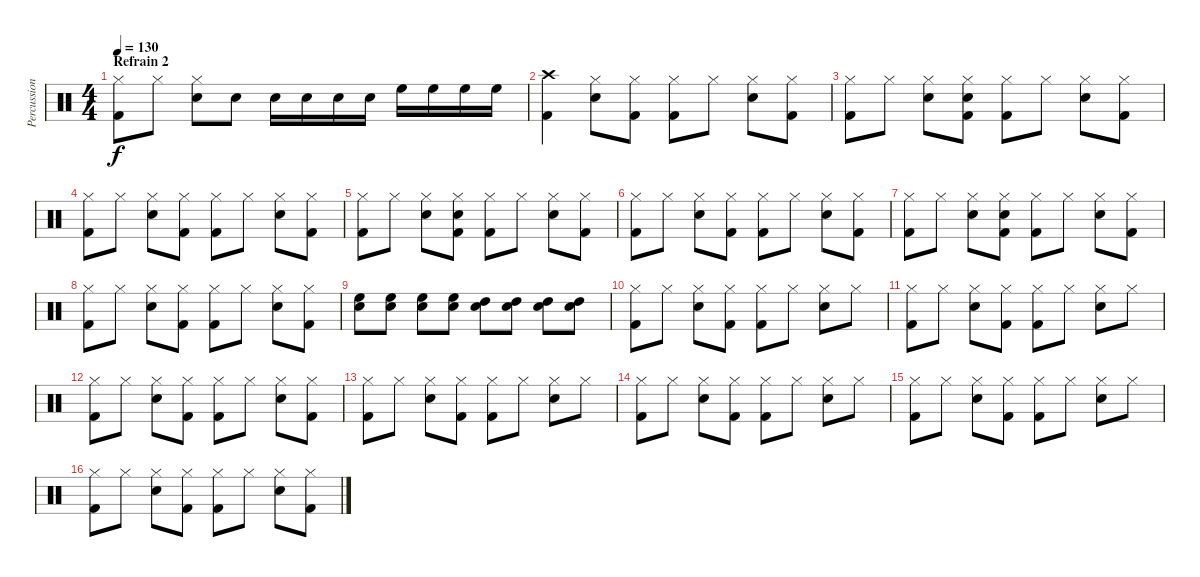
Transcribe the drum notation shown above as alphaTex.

\track ("Percussion" "Percussion") {instrument percussion}
\staff {score}
\articulation defaults
\ts (4 4)
\section ("" "Refrain 2")
\tempo 130
\clef neutral
\ks c
("Hi-Hat (closed)" "Kick (hit) 2").8{dy f} "Hi-Hat (closed)".8 ("Hi-Hat (closed)" "Snare (hit) 2").8 "Snare (hit) 2".8 "Snare (hit) 2".16 "Snare (hit) 2".16 "Snare (hit) 2".16 "Snare (hit) 2".16 "High Floor Tom (hit)".16 "High Floor Tom (hit)".16 "High Floor Tom (hit)".16 "High Floor Tom (hit)".16 |
("Crash high (hit)" "Kick (hit) 2").4 ("Hi-Hat (closed)" "Snare (hit) 2").8 ("Hi-Hat (closed)" "Kick (hit) 2").8 ("Hi-Hat (closed)" "Kick (hit) 2").8 "Hi-Hat (closed)".8 ("Hi-Hat (closed)" "Snare (hit) 2").8 ("Hi-Hat (closed)" "Kick (hit) 2").8 |
("Hi-Hat (closed)" "Kick (hit) 2").8 "Hi-Hat (closed)".8 ("Hi-Hat (closed)" "Snare (hit) 2").8 ("Hi-Hat (closed)" "Snare (hit) 2" "Kick (hit) 2").8 ("Hi-Hat (closed)" "Kick (hit) 2").8 "Hi-Hat (closed)".8 ("Hi-Hat (closed)" "Snare (hit) 2").8 ("Hi-Hat (closed)" "Kick (hit) 2").8 |
("Hi-Hat (closed)" "Kick (hit) 2").8 "Hi-Hat (closed)".8 ("Hi-Hat (closed)" "Snare (hit) 2").8 ("Hi-Hat (closed)" "Kick (hit) 2").8 ("Hi-Hat (closed)" "Kick (hit) 2").8 "Hi-Hat (closed)".8 ("Hi-Hat (closed)" "Snare (hit) 2").8 ("Hi-Hat (closed)" "Kick (hit) 2").8 |
("Hi-Hat (closed)" "Kick (hit) 2").8 "Hi-Hat (closed)".8 ("Hi-Hat (closed)" "Snare (hit) 2").8 ("Hi-Hat (closed)" "Snare (hit) 2" "Kick (hit) 2").8 ("Hi-Hat (closed)" "Kick (hit) 2").8 "Hi-Hat (closed)".8 ("Hi-Hat (closed)" "Snare (hit) 2").8 ("Hi-Hat (closed)" "Kick (hit) 2").8 |
("Hi-Hat (closed)" "Kick (hit) 2").8 "Hi-Hat (closed)".8 ("Hi-Hat (closed)" "Snare (hit) 2").8 ("Hi-Hat (closed)" "Kick (hit) 2").8 ("Hi-Hat (closed)" "Kick (hit) 2").8 "Hi-Hat (closed)".8 ("Hi-Hat (closed)" "Snare (hit) 2").8 ("Hi-Hat (closed)" "Kick (hit) 2").8 |
("Hi-Hat (closed)" "Kick (hit) 2").8 "Hi-Hat (closed)".8 ("Hi-Hat (closed)" "Snare (hit) 2").8 ("Hi-Hat (closed)" "Snare (hit) 2" "Kick (hit) 2").8 ("Hi-Hat (closed)" "Kick (hit) 2").8 "Hi-Hat (closed)".8 ("Hi-Hat (closed)" "Snare (hit) 2").8 ("Hi-Hat (closed)" "Kick (hit) 2").8 |
("Hi-Hat (closed)" "Kick (hit) 2").8 "Hi-Hat (closed)".8 ("Hi-Hat (closed)" "Snare (hit) 2").8 ("Hi-Hat (closed)" "Kick (hit) 2").8 ("Hi-Hat (closed)" "Kick (hit) 2").8 "Hi-Hat (closed)".8 ("Hi-Hat (closed)" "Snare (hit) 2").8 ("Hi-Hat (closed)" "Kick (hit) 2").8 |
("Snare (hit) 2" "High Floor Tom (hit)").8 ("Snare (hit) 2" "High Floor Tom (hit)").8 ("Snare (hit) 2" "High Floor Tom (hit)").8 ("Snare (hit) 2" "High Floor Tom (hit)").8 ("Snare (hit) 2" "High Tom (hit)").8 ("Snare (hit) 2" "High Tom (hit)").8 ("Snare (hit) 2" "High Tom (hit)").8 ("Snare (hit) 2" "High Tom (hit)").8 |
("Hi-Hat (closed)" "Kick (hit) 2").8 "Hi-Hat (closed)".8 ("Hi-Hat (closed)" "Snare (hit) 2").8 ("Hi-Hat (closed)" "Kick (hit) 2").8 ("Hi-Hat (closed)" "Kick (hit) 2").8 "Hi-Hat (closed)".8 ("Hi-Hat (closed)" "Snare (hit) 2").8 "Hi-Hat (closed)".8 |
("Hi-Hat (closed)" "Kick (hit) 2").8 "Hi-Hat (closed)".8 ("Hi-Hat (closed)" "Snare (hit) 2").8 ("Hi-Hat (closed)" "Kick (hit) 2").8 ("Hi-Hat (closed)" "Kick (hit) 2").8 "Hi-Hat (closed)".8 ("Hi-Hat (closed)" "Snare (hit) 2").8 "Hi-Hat (closed)".8 |
("Hi-Hat (closed)" "Kick (hit) 2").8 "Hi-Hat (closed)".8 ("Hi-Hat (closed)" "Snare (hit) 2").8 ("Hi-Hat (closed)" "Kick (hit) 2").8 ("Hi-Hat (closed)" "Kick (hit) 2").8 "Hi-Hat (closed)".8 ("Hi-Hat (closed)" "Snare (hit) 2").8 ("Hi-Hat (closed)" "Kick (hit) 2").8 |
("Hi-Hat (closed)" "Kick (hit) 2").8 "Hi-Hat (closed)".8 ("Hi-Hat (closed)" "Snare (hit) 2").8 ("Hi-Hat (closed)" "Kick (hit) 2").8 ("Hi-Hat (closed)" "Kick (hit) 2").8 "Hi-Hat (closed)".8 ("Hi-Hat (closed)" "Snare (hit) 2").8 "Hi-Hat (closed)".8 |
("Hi-Hat (closed)" "Kick (hit) 2").8 "Hi-Hat (closed)".8 ("Hi-Hat (closed)" "Snare (hit) 2").8 ("Hi-Hat (closed)" "Kick (hit) 2").8 ("Hi-Hat (closed)" "Kick (hit) 2").8 "Hi-Hat (closed)".8 ("Hi-Hat (closed)" "Snare (hit) 2").8 "Hi-Hat (closed)".8 |
("Hi-Hat (closed)" "Kick (hit) 2").8 "Hi-Hat (closed)".8 ("Hi-Hat (closed)" "Snare (hit) 2").8 ("Hi-Hat (closed)" "Kick (hit) 2").8 ("Hi-Hat (closed)" "Kick (hit) 2").8 "Hi-Hat (closed)".8 ("Hi-Hat (closed)" "Snare (hit) 2").8 "Hi-Hat (closed)".8 |
("Hi-Hat (closed)" "Kick (hit) 2").8 "Hi-Hat (closed)".8 ("Hi-Hat (closed)" "Snare (hit) 2").8 ("Hi-Hat (closed)" "Kick (hit) 2").8 ("Hi-Hat (closed)" "Kick (hit) 2").8 "Hi-Hat (closed)".8 ("Hi-Hat (closed)" "Snare (hit) 2").8 ("Hi-Hat (closed)" "Kick (hit) 2").8
